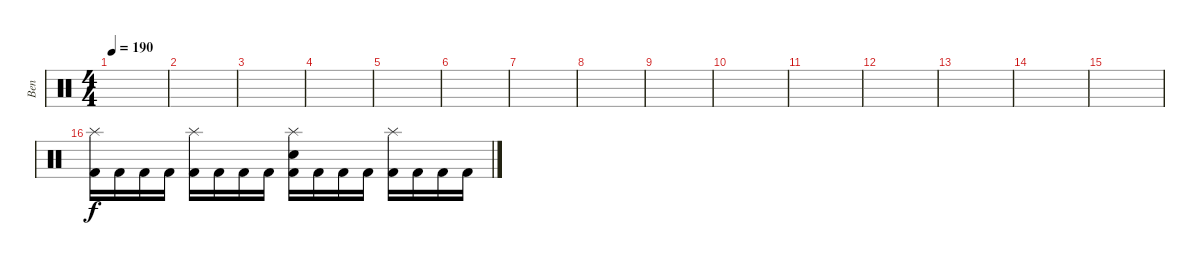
\track ("Ben" "Ben") {instrument percussion}
\staff {score}
\articulation defaults
\ts (4 4)
\tempo 190
\clef neutral
\ks c
|
|
|
|
|
|
|
|
|
|
|
|
|
|
|
("Splash (hit)" "Kick (hit) 2").16 "Kick (hit) 2".16 "Kick (hit) 2".16 "Kick (hit) 2".16 ("Splash (hit)" "Kick (hit) 2").16 "Kick (hit) 2".16 "Kick (hit) 2".16 "Kick (hit) 2".16 ("Snare (hit) 2" "Splash (hit)" "Kick (hit) 2").16 "Kick (hit) 2".16 "Kick (hit) 2".16 "Kick (hit) 2".16 ("Splash (hit)" "Kick (hit) 2").16 "Kick (hit) 2".16 "Kick (hit) 2".16 "Kick (hit) 2".16
